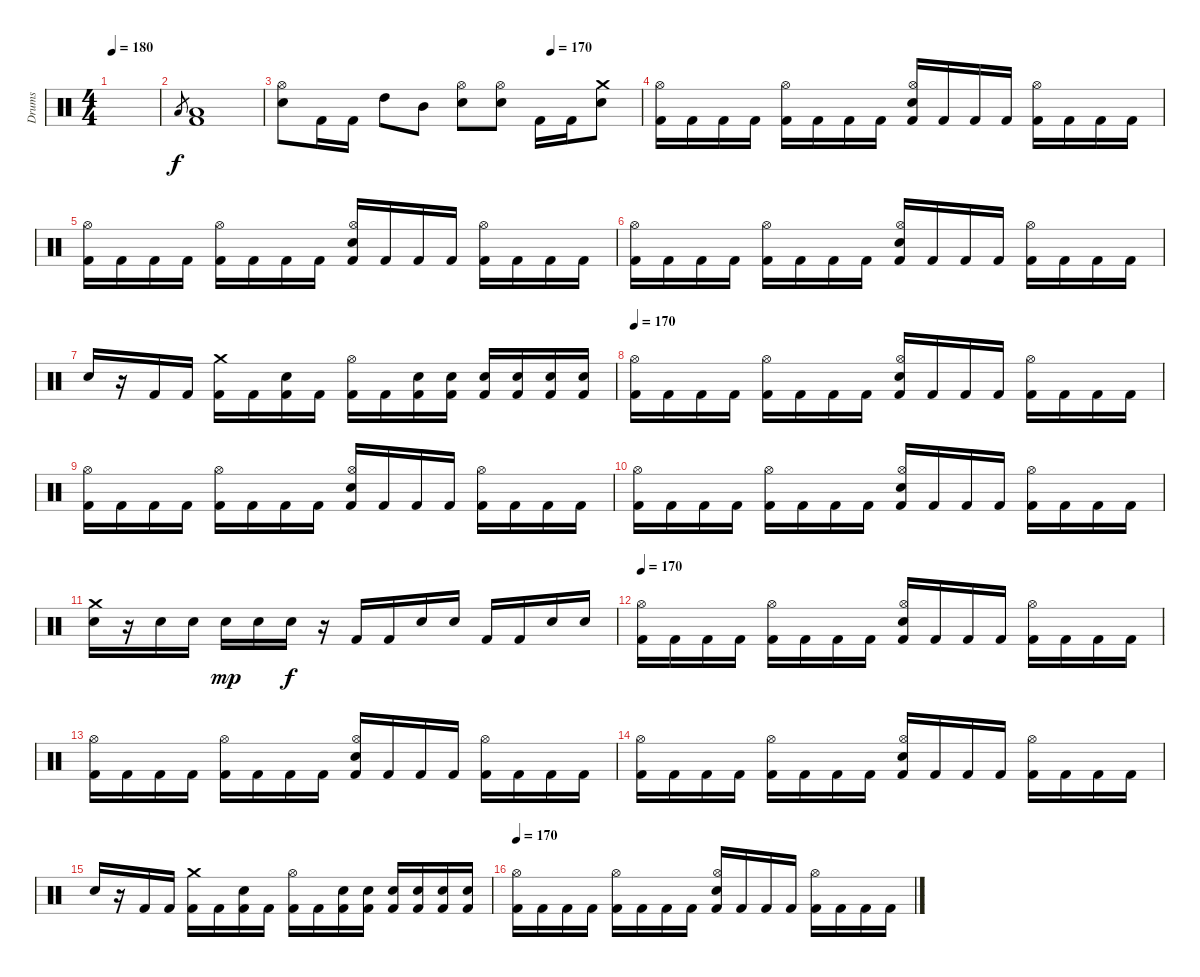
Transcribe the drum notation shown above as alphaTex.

\track ("Drums" "Drums") {instrument percussion}
\staff {score}
\articulation defaults
\ts (4 4)
\tempo 180
\clef neutral
\ks c
|
"Low Floor Tom (hit)".8{gr} ("Low Floor Tom (hit)" "Kick (hit) 2").1 |
\tempo (170 0.75)
("Hi-Hat (open)" "Electric Snare (hit)").8 "Kick (hit) 2".16 "Kick (hit) 2".16 "High Tom (hit)".8 "Mid Tom (hit)".8 ("Hi-Hat (open)" "Electric Snare (hit)").8 ("Hi-Hat (open)" "Electric Snare (hit)").8 "Kick (hit) 2".16 "Kick (hit) 2".16 ("Crash medium (hit)" "Electric Snare (hit)").8 |
("Hi-Hat (open)" "Kick (hit) 2").16 "Kick (hit) 2".16 "Kick (hit) 2".16 "Kick (hit) 2".16 ("Hi-Hat (open)" "Kick (hit) 2").16 "Kick (hit) 2".16 "Kick (hit) 2".16 "Kick (hit) 2".16 ("Hi-Hat (open)" "Electric Snare (hit)" "Kick (hit) 2").16 "Kick (hit) 2".16 "Kick (hit) 2".16 "Kick (hit) 2".16 ("Hi-Hat (open)" "Kick (hit) 2").16 "Kick (hit) 2".16 "Kick (hit) 2".16 "Kick (hit) 2".16 |
("Hi-Hat (open)" "Kick (hit) 2").16 "Kick (hit) 2".16 "Kick (hit) 2".16 "Kick (hit) 2".16 ("Hi-Hat (open)" "Kick (hit) 2").16 "Kick (hit) 2".16 "Kick (hit) 2".16 "Kick (hit) 2".16 ("Hi-Hat (open)" "Electric Snare (hit)" "Kick (hit) 2").16 "Kick (hit) 2".16 "Kick (hit) 2".16 "Kick (hit) 2".16 ("Hi-Hat (open)" "Kick (hit) 2").16 "Kick (hit) 2".16 "Kick (hit) 2".16 "Kick (hit) 2".16 |
("Hi-Hat (open)" "Kick (hit) 2").16 "Kick (hit) 2".16 "Kick (hit) 2".16 "Kick (hit) 2".16 ("Hi-Hat (open)" "Kick (hit) 2").16 "Kick (hit) 2".16 "Kick (hit) 2".16 "Kick (hit) 2".16 ("Hi-Hat (open)" "Electric Snare (hit)" "Kick (hit) 2").16 "Kick (hit) 2".16 "Kick (hit) 2".16 "Kick (hit) 2".16 ("Hi-Hat (open)" "Kick (hit) 2").16 "Kick (hit) 2".16 "Kick (hit) 2".16 "Kick (hit) 2".16 |
"Electric Snare (hit)".16 r.16 "Kick (hit) 2".16 "Kick (hit) 2".16 ("Crash medium (hit)" "Kick (hit) 2").16 "Kick (hit) 2".16 ("Electric Snare (hit)" "Kick (hit) 2").16 "Kick (hit) 2".16 ("Hi-Hat (open)" "Kick (hit) 2").16 "Kick (hit) 2".16 ("Electric Snare (hit)" "Kick (hit) 2").16 ("Electric Snare (hit)" "Kick (hit) 2").16 ("Electric Snare (hit)" "Kick (hit) 2").16 ("Electric Snare (hit)" "Kick (hit) 2").16 ("Electric Snare (hit)" "Kick (hit) 2").16 ("Electric Snare (hit)" "Kick (hit) 2").16 |
\tempo 170
("Hi-Hat (open)" "Kick (hit) 2").16 "Kick (hit) 2".16 "Kick (hit) 2".16 "Kick (hit) 2".16 ("Hi-Hat (open)" "Kick (hit) 2").16 "Kick (hit) 2".16 "Kick (hit) 2".16 "Kick (hit) 2".16 ("Hi-Hat (open)" "Electric Snare (hit)" "Kick (hit) 2").16 "Kick (hit) 2".16 "Kick (hit) 2".16 "Kick (hit) 2".16 ("Hi-Hat (open)" "Kick (hit) 2").16 "Kick (hit) 2".16 "Kick (hit) 2".16 "Kick (hit) 2".16 |
("Hi-Hat (open)" "Kick (hit) 2").16 "Kick (hit) 2".16 "Kick (hit) 2".16 "Kick (hit) 2".16 ("Hi-Hat (open)" "Kick (hit) 2").16 "Kick (hit) 2".16 "Kick (hit) 2".16 "Kick (hit) 2".16 ("Hi-Hat (open)" "Electric Snare (hit)" "Kick (hit) 2").16 "Kick (hit) 2".16 "Kick (hit) 2".16 "Kick (hit) 2".16 ("Hi-Hat (open)" "Kick (hit) 2").16 "Kick (hit) 2".16 "Kick (hit) 2".16 "Kick (hit) 2".16 |
("Hi-Hat (open)" "Kick (hit) 2").16 "Kick (hit) 2".16 "Kick (hit) 2".16 "Kick (hit) 2".16 ("Hi-Hat (open)" "Kick (hit) 2").16 "Kick (hit) 2".16 "Kick (hit) 2".16 "Kick (hit) 2".16 ("Hi-Hat (open)" "Electric Snare (hit)" "Kick (hit) 2").16 "Kick (hit) 2".16 "Kick (hit) 2".16 "Kick (hit) 2".16 ("Hi-Hat (open)" "Kick (hit) 2").16 "Kick (hit) 2".16 "Kick (hit) 2".16 "Kick (hit) 2".16 |
("Crash medium (hit)" "Electric Snare (hit)").16 r.16 "Electric Snare (hit)".16 "Electric Snare (hit)".16 "Electric Snare (hit)".16{dy mp} "Electric Snare (hit)".16 "Electric Snare (hit)".16{dy f} r.16 "Kick (hit) 2".16 "Kick (hit) 2".16 "Electric Snare (hit)".16 "Electric Snare (hit)".16 "Kick (hit) 2".16 "Kick (hit) 2".16 "Electric Snare (hit)".16 "Electric Snare (hit)".16 |
\tempo 170
("Hi-Hat (open)" "Kick (hit) 2").16 "Kick (hit) 2".16 "Kick (hit) 2".16 "Kick (hit) 2".16 ("Hi-Hat (open)" "Kick (hit) 2").16 "Kick (hit) 2".16 "Kick (hit) 2".16 "Kick (hit) 2".16 ("Hi-Hat (open)" "Electric Snare (hit)" "Kick (hit) 2").16 "Kick (hit) 2".16 "Kick (hit) 2".16 "Kick (hit) 2".16 ("Hi-Hat (open)" "Kick (hit) 2").16 "Kick (hit) 2".16 "Kick (hit) 2".16 "Kick (hit) 2".16 |
("Hi-Hat (open)" "Kick (hit) 2").16 "Kick (hit) 2".16 "Kick (hit) 2".16 "Kick (hit) 2".16 ("Hi-Hat (open)" "Kick (hit) 2").16 "Kick (hit) 2".16 "Kick (hit) 2".16 "Kick (hit) 2".16 ("Hi-Hat (open)" "Electric Snare (hit)" "Kick (hit) 2").16 "Kick (hit) 2".16 "Kick (hit) 2".16 "Kick (hit) 2".16 ("Hi-Hat (open)" "Kick (hit) 2").16 "Kick (hit) 2".16 "Kick (hit) 2".16 "Kick (hit) 2".16 |
("Hi-Hat (open)" "Kick (hit) 2").16 "Kick (hit) 2".16 "Kick (hit) 2".16 "Kick (hit) 2".16 ("Hi-Hat (open)" "Kick (hit) 2").16 "Kick (hit) 2".16 "Kick (hit) 2".16 "Kick (hit) 2".16 ("Hi-Hat (open)" "Electric Snare (hit)" "Kick (hit) 2").16 "Kick (hit) 2".16 "Kick (hit) 2".16 "Kick (hit) 2".16 ("Hi-Hat (open)" "Kick (hit) 2").16 "Kick (hit) 2".16 "Kick (hit) 2".16 "Kick (hit) 2".16 |
"Electric Snare (hit)".16 r.16 "Kick (hit) 2".16 "Kick (hit) 2".16 ("Crash medium (hit)" "Kick (hit) 2").16 "Kick (hit) 2".16 ("Electric Snare (hit)" "Kick (hit) 2").16 "Kick (hit) 2".16 ("Hi-Hat (open)" "Kick (hit) 2").16 "Kick (hit) 2".16 ("Electric Snare (hit)" "Kick (hit) 2").16 ("Electric Snare (hit)" "Kick (hit) 2").16 ("Electric Snare (hit)" "Kick (hit) 2").16 ("Electric Snare (hit)" "Kick (hit) 2").16 ("Electric Snare (hit)" "Kick (hit) 2").16 ("Electric Snare (hit)" "Kick (hit) 2").16 |
\tempo 170
("Hi-Hat (open)" "Kick (hit) 2").16 "Kick (hit) 2".16 "Kick (hit) 2".16 "Kick (hit) 2".16 ("Hi-Hat (open)" "Kick (hit) 2").16 "Kick (hit) 2".16 "Kick (hit) 2".16 "Kick (hit) 2".16 ("Hi-Hat (open)" "Electric Snare (hit)" "Kick (hit) 2").16 "Kick (hit) 2".16 "Kick (hit) 2".16 "Kick (hit) 2".16 ("Hi-Hat (open)" "Kick (hit) 2").16 "Kick (hit) 2".16 "Kick (hit) 2".16 "Kick (hit) 2".16
